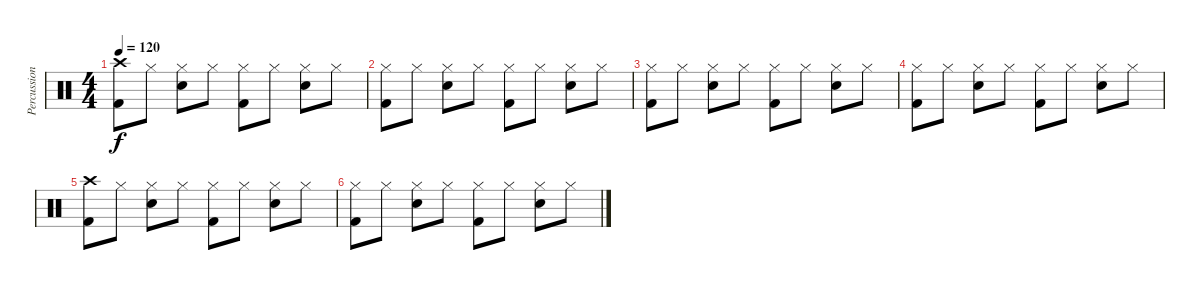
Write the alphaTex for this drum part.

\track ("Percussion" "Percussion") {instrument percussion}
\staff {score}
\articulation defaults
\ts (4 4)
\tempo 120
\clef neutral
\ks c
("Crash high (hit)" "Kick (hit) 2").8{dy f} "Hi-Hat (closed)".8 ("Hi-Hat (closed)" "Electric Snare (hit)").8 "Hi-Hat (closed)".8 ("Hi-Hat (closed)" "Kick (hit) 2").8 "Hi-Hat (closed)".8 ("Hi-Hat (closed)" "Electric Snare (hit)").8 "Hi-Hat (closed)".8 |
("Hi-Hat (closed)" "Kick (hit) 2").8 "Hi-Hat (closed)".8 ("Hi-Hat (closed)" "Electric Snare (hit)").8 "Hi-Hat (closed)".8 ("Hi-Hat (closed)" "Kick (hit) 2").8 "Hi-Hat (closed)".8 ("Hi-Hat (closed)" "Electric Snare (hit)").8 "Hi-Hat (closed)".8 |
("Hi-Hat (closed)" "Kick (hit) 2").8 "Hi-Hat (closed)".8 ("Hi-Hat (closed)" "Electric Snare (hit)").8 "Hi-Hat (closed)".8 ("Hi-Hat (closed)" "Kick (hit) 2").8 "Hi-Hat (closed)".8 ("Hi-Hat (closed)" "Electric Snare (hit)").8 "Hi-Hat (closed)".8 |
("Hi-Hat (closed)" "Kick (hit) 2").8 "Hi-Hat (closed)".8 ("Hi-Hat (closed)" "Electric Snare (hit)").8 "Hi-Hat (closed)".8 ("Hi-Hat (closed)" "Kick (hit) 2").8 "Hi-Hat (closed)".8 ("Hi-Hat (closed)" "Electric Snare (hit)").8 "Hi-Hat (closed)".8 |
("Crash high (hit)" "Kick (hit) 2").8 "Hi-Hat (closed)".8 ("Hi-Hat (closed)" "Electric Snare (hit)").8 "Hi-Hat (closed)".8 ("Hi-Hat (closed)" "Kick (hit) 2").8 "Hi-Hat (closed)".8 ("Hi-Hat (closed)" "Electric Snare (hit)").8 "Hi-Hat (closed)".8 |
("Hi-Hat (closed)" "Kick (hit) 2").8 "Hi-Hat (closed)".8 ("Hi-Hat (closed)" "Electric Snare (hit)").8 "Hi-Hat (closed)".8 ("Hi-Hat (closed)" "Kick (hit) 2").8 "Hi-Hat (closed)".8 ("Hi-Hat (closed)" "Electric Snare (hit)").8 "Hi-Hat (closed)".8
